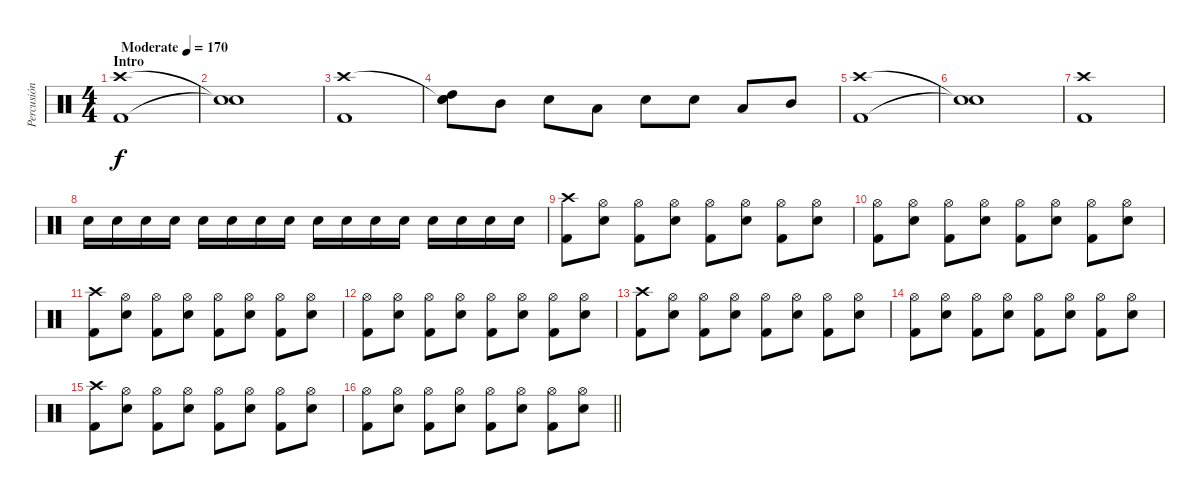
\track ("Percusión" "Percusión") {instrument percussion}
\staff {score}
\articulation defaults
\ts (4 4)
\section ("" "Intro")
\tempo (170 "Moderate")
\clef neutral
\ks c
("Crash high (hit)" "Kick (hit) 2").1{dy f} |
("Snare (hit)"{t} "Snare (hit)"{t}).1 |
("Crash high (hit)" "Kick (hit) 2").1 |
("Snare (hit)"{t} "High Tom (hit)" "Snare (hit)").8 "Mid Tom (hit)".8 "Electric Snare (hit)".8 "Low Tom (hit)".8 "Electric Snare (hit)".8 "Electric Snare (hit)".8 "Low Tom (hit)".8 "Mid Tom (hit)".8 |
("Crash high (hit)" "Kick (hit) 2").1 |
("Snare (hit)"{t} "Snare (hit)"{t}).1 |
("Crash high (hit)" "Kick (hit) 2").1 |
"Electric Snare (hit)".16 "Electric Snare (hit)".16 "Electric Snare (hit)".16 "Electric Snare (hit)".16 "Electric Snare (hit)".16 "Electric Snare (hit)".16 "Electric Snare (hit)".16 "Electric Snare (hit)".16 "Electric Snare (hit)".16 "Electric Snare (hit)".16 "Electric Snare (hit)".16 "Electric Snare (hit)".16 "Electric Snare (hit)".16 "Electric Snare (hit)".16 "Electric Snare (hit)".16 "Electric Snare (hit)".16 |
("Crash high (hit)" "Kick (hit) 2").8 ("Hi-Hat (open)" "Electric Snare (hit)").8 ("Hi-Hat (open)" "Kick (hit) 2").8 ("Hi-Hat (open)" "Electric Snare (hit)").8 ("Hi-Hat (open)" "Kick (hit) 2").8 ("Hi-Hat (open)" "Electric Snare (hit)").8 ("Hi-Hat (open)" "Kick (hit) 2").8 ("Hi-Hat (open)" "Electric Snare (hit)").8 |
("Hi-Hat (open)" "Kick (hit) 2").8 ("Hi-Hat (open)" "Electric Snare (hit)").8 ("Hi-Hat (open)" "Kick (hit) 2").8 ("Hi-Hat (open)" "Electric Snare (hit)").8 ("Hi-Hat (open)" "Kick (hit) 2").8 ("Hi-Hat (open)" "Electric Snare (hit)").8 ("Hi-Hat (open)" "Kick (hit) 2").8 ("Hi-Hat (open)" "Electric Snare (hit)").8 |
("Crash high (hit)" "Kick (hit) 2").8 ("Hi-Hat (open)" "Electric Snare (hit)").8 ("Hi-Hat (open)" "Kick (hit) 2").8 ("Hi-Hat (open)" "Electric Snare (hit)").8 ("Hi-Hat (open)" "Kick (hit) 2").8 ("Hi-Hat (open)" "Electric Snare (hit)").8 ("Hi-Hat (open)" "Kick (hit) 2").8 ("Hi-Hat (open)" "Electric Snare (hit)").8 |
("Hi-Hat (open)" "Kick (hit) 2").8 ("Hi-Hat (open)" "Electric Snare (hit)").8 ("Hi-Hat (open)" "Kick (hit) 2").8 ("Hi-Hat (open)" "Electric Snare (hit)").8 ("Hi-Hat (open)" "Kick (hit) 2").8 ("Hi-Hat (open)" "Electric Snare (hit)").8 ("Hi-Hat (open)" "Kick (hit) 2").8 ("Hi-Hat (open)" "Electric Snare (hit)").8 |
("Crash high (hit)" "Kick (hit) 2").8 ("Hi-Hat (open)" "Electric Snare (hit)").8 ("Hi-Hat (open)" "Kick (hit) 2").8 ("Hi-Hat (open)" "Electric Snare (hit)").8 ("Hi-Hat (open)" "Kick (hit) 2").8 ("Hi-Hat (open)" "Electric Snare (hit)").8 ("Hi-Hat (open)" "Kick (hit) 2").8 ("Hi-Hat (open)" "Electric Snare (hit)").8 |
("Hi-Hat (open)" "Kick (hit) 2").8 ("Hi-Hat (open)" "Electric Snare (hit)").8 ("Hi-Hat (open)" "Kick (hit) 2").8 ("Hi-Hat (open)" "Electric Snare (hit)").8 ("Hi-Hat (open)" "Kick (hit) 2").8 ("Hi-Hat (open)" "Electric Snare (hit)").8 ("Hi-Hat (open)" "Kick (hit) 2").8 ("Hi-Hat (open)" "Electric Snare (hit)").8 |
("Crash high (hit)" "Kick (hit) 2").8 ("Hi-Hat (open)" "Electric Snare (hit)").8 ("Hi-Hat (open)" "Kick (hit) 2").8 ("Hi-Hat (open)" "Electric Snare (hit)").8 ("Hi-Hat (open)" "Kick (hit) 2").8 ("Hi-Hat (open)" "Electric Snare (hit)").8 ("Hi-Hat (open)" "Kick (hit) 2").8 ("Hi-Hat (open)" "Electric Snare (hit)").8 |
\barLineRight lightlight
("Hi-Hat (open)" "Kick (hit) 2").8 ("Hi-Hat (open)" "Electric Snare (hit)").8 ("Hi-Hat (open)" "Kick (hit) 2").8 ("Hi-Hat (open)" "Electric Snare (hit)").8 ("Hi-Hat (open)" "Kick (hit) 2").8 ("Hi-Hat (open)" "Electric Snare (hit)").8 ("Hi-Hat (open)" "Kick (hit) 2").8 ("Hi-Hat (open)" "Electric Snare (hit)").8
